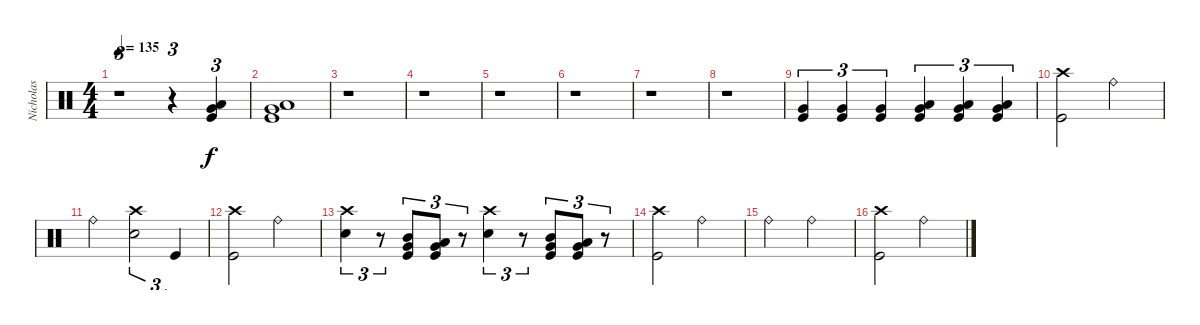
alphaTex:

\track ("Nicholas" "Nicholas") {instrument percussion}
\staff {score}
\articulation defaults
\ts (4 4)
\tempo 135
\clef neutral
\ks c
r.1{tu (3 2) dy f} r.4{tu (3 2)} ("Low Tom (hit)" "Very Low Tom (hit)" "Kick (hit)").4{tu (3 2)} |
("Low Tom (hit)" "Very Low Tom (hit)" "Kick (hit)").1 |
r.1 |
r.1 |
r.1 |
r.1 |
r.1 |
r.1 |
("Very Low Tom (hit)" "Kick (hit)").4{tu (3 2)} ("Very Low Tom (hit)" "Kick (hit)").4{tu (3 2)} ("Very Low Tom (hit)" "Kick (hit)").4{tu (3 2)} ("Low Tom (hit)" "Very Low Tom (hit)" "Kick (hit)").4{tu (3 2)} ("Low Tom (hit)" "Very Low Tom (hit)" "Kick (hit)").4{tu (3 2)} ("Low Tom (hit)" "Very Low Tom (hit)" "Kick (hit)").4{tu (3 2)} |
("Crash high (hit)" "Kick (hit)").2 "Ride (bell)".2 |
"Ride (bell)".2 ("Crash high (hit)" "Electric Snare (hit)").2{tu (3 2)} "Kick (hit)".4{tu (3 2)} |
("Crash high (hit)" "Kick (hit)").2 "Ride (bell)".2 |
("Crash high (hit)" "Electric Snare (hit)").4{tu (3 2)} r.8{tu (3 2)} ("Mid Tom (hit)" "Very Low Tom (hit)" "Kick (hit)").8{tu (3 2) balance 6} ("Low Tom (hit)" "Very Low Tom (hit)" "Kick (hit)").8{tu (3 2)} r.8{tu (3 2) balance 8} ("Crash high (hit)" "Electric Snare (hit)").4{tu (3 2)} r.8{tu (3 2)} ("Mid Tom (hit)" "Very Low Tom (hit)" "Kick (hit)").8{tu (3 2) balance 6} ("Low Tom (hit)" "Very Low Tom (hit)" "Kick (hit)").8{tu (3 2)} r.8{tu (3 2) balance 8} |
("Crash high (hit)" "Kick (hit)").2 "Ride (bell)".2 |
"Ride (bell)".2 "Ride (bell)".2 |
("Crash high (hit)" "Kick (hit)").2 "Ride (bell)".2
